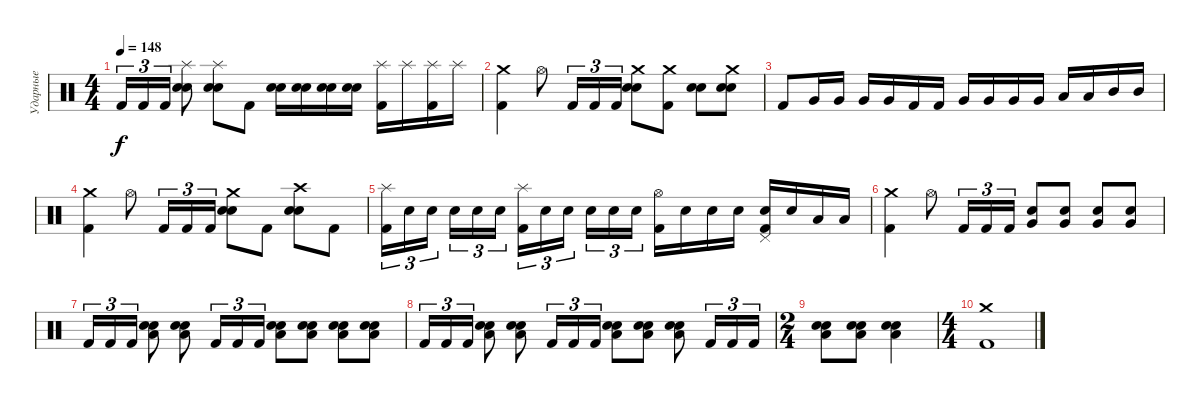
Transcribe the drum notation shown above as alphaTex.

\track ("Ударные" "Ударные") {instrument percussion}
\staff {score}
\articulation defaults
\ts (4 4)
\tempo 148
\clef neutral
\ks c "Kick (hit) 2".16{tu (3 2) dy f} "Kick (hit) 2".16{tu (3 2)} "Kick (hit) 2".16{tu (3 2)}
("Splash (hit)" "Electric Snare (hit)" "Snare (hit) 2").8 ("Splash (hit)" "Electric Snare (hit)" "Snare (hit) 2").8 "Kick (hit) 2".8 ("Snare (hit) 2" "Electric Snare (hit)").16 ("Snare (hit) 2" "Electric Snare (hit)").16 ("Snare (hit) 2" "Electric Snare (hit)").16 ("Snare (hit) 2" "Electric Snare (hit)").16 ("Splash (hit)" "Kick (hit) 2").16 "Splash (hit)".16 ("Splash (hit)" "Kick (hit) 2").16 "Splash (hit)".16 |
("Crash medium (hit)" "Kick (hit) 2").4 "Hi-Hat (open)".8 "Kick (hit) 2".16{tu (3 2)} "Kick (hit) 2".16{tu (3 2)} "Kick (hit) 2".16{tu (3 2)} ("Crash medium (hit)" "Snare (hit) 2" "Electric Snare (hit)").8 ("Crash medium (hit)" "Kick (hit) 2").8 ("Snare (hit) 2" "Electric Snare (hit)").8 ("Crash medium (hit)" "Snare (hit) 2" "Electric Snare (hit)").8 |
"Kick (hit) 2".8 "Very Low Tom (hit)".16 "Very Low Tom (hit)".16 "Very Low Tom (hit)".16 "Very Low Tom (hit)".16 "Kick (hit) 2".16 "Kick (hit) 2".16 "Very Low Tom (hit)".16 "Very Low Tom (hit)".16 "Very Low Tom (hit)".16 "Very Low Tom (hit)".16 "Low Tom (hit)".16 "Low Tom (hit)".16 "Mid Tom (hit)".16 "Mid Tom (hit)".16 |
("Crash medium (hit)" "Kick (hit) 2").4 "Hi-Hat (open)".8 "Kick (hit) 2".16{tu (3 2)} "Kick (hit) 2".16{tu (3 2)} "Kick (hit) 2".16{tu (3 2)} ("Crash medium (hit)" "Snare (hit) 2" "Electric Snare (hit)").8 "Kick (hit) 2".8 ("Crash high (hit)" "Snare (hit) 2" "Electric Snare (hit)").8 "Kick (hit) 2".8 |
("Splash (hit)" "Kick (hit) 2").16{tu (3 2)} "Electric Snare (hit)".16{tu (3 2)} "Electric Snare (hit)".16{tu (3 2) beam splitsecondary} "Electric Snare (hit)".16{tu (3 2)} "Electric Snare (hit)".16{tu (3 2)} "Electric Snare (hit)".16{tu (3 2)} ("Splash (hit)" "Kick (hit) 2").16{tu (3 2)} "Electric Snare (hit)".16{tu (3 2)} "Electric Snare (hit)".16{tu (3 2) beam splitsecondary} "Electric Snare (hit)".16{tu (3 2)} "Electric Snare (hit)".16{tu (3 2)} "Electric Snare (hit)".16{tu (3 2)} ("Hi-Hat (open)" "Kick (hit) 2").16 "Electric Snare (hit)".16 "Electric Snare (hit)".16 "Electric Snare (hit)".16 ("Pedal Hi-Hat (hit)" "Electric Snare (hit)" "Kick (hit) 2").16 "Electric Snare (hit)".16 "Low Tom (hit)".16 "Low Tom (hit)".16 |
("Crash medium (hit)" "Kick (hit) 2").4 "Hi-Hat (open)".8 "Kick (hit) 2".16{tu (3 2)} "Kick (hit) 2".16{tu (3 2)} "Kick (hit) 2".16{tu (3 2)} ("Very Low Tom (hit)" "Electric Snare (hit)").8 ("Very Low Tom (hit)" "Electric Snare (hit)").8 ("Very Low Tom (hit)" "Electric Snare (hit)").8 ("Very Low Tom (hit)" "Electric Snare (hit)").8 |
"Kick (hit) 2".16{tu (3 2)} "Kick (hit) 2".16{tu (3 2)} "Kick (hit) 2".16{tu (3 2)} ("Low Floor Tom (hit)" "Snare (hit) 2" "Electric Snare (hit)").8 ("Low Floor Tom (hit)" "Snare (hit) 2" "Electric Snare (hit)").8 "Kick (hit) 2".16{tu (3 2)} "Kick (hit) 2".16{tu (3 2)} "Kick (hit) 2".16{tu (3 2)} ("Low Floor Tom (hit)" "Snare (hit) 2" "Electric Snare (hit)").8 ("Low Floor Tom (hit)" "Snare (hit) 2" "Electric Snare (hit)").8 ("Low Floor Tom (hit)" "Snare (hit) 2" "Electric Snare (hit)").8 ("Low Floor Tom (hit)" "Snare (hit) 2" "Electric Snare (hit)").8 |
"Kick (hit) 2".16{tu (3 2)} "Kick (hit) 2".16{tu (3 2)} "Kick (hit) 2".16{tu (3 2)} ("Low Floor Tom (hit)" "Snare (hit) 2" "Electric Snare (hit)").8 ("Low Floor Tom (hit)" "Snare (hit) 2" "Electric Snare (hit)").8 "Kick (hit) 2".16{tu (3 2)} "Kick (hit) 2".16{tu (3 2)} "Kick (hit) 2".16{tu (3 2)} ("Low Floor Tom (hit)" "Snare (hit) 2" "Electric Snare (hit)").8 ("Low Floor Tom (hit)" "Snare (hit) 2" "Electric Snare (hit)").8 ("Low Floor Tom (hit)" "Snare (hit) 2" "Electric Snare (hit)").8 "Kick (hit) 2".16{tu (3 2)} "Kick (hit) 2".16{tu (3 2)} "Kick (hit) 2".16{tu (3 2)} |
\ts (2 4)
("Electric Snare (hit)" "Snare (hit) 2" "Low Floor Tom (hit)").8 ("Electric Snare (hit)" "Snare (hit) 2" "Low Floor Tom (hit)").8 ("Electric Snare (hit)" "Snare (hit) 2" "Low Floor Tom (hit)").4 |
\ts (4 4)
("Crash medium (hit)" "Kick (hit) 2").1
